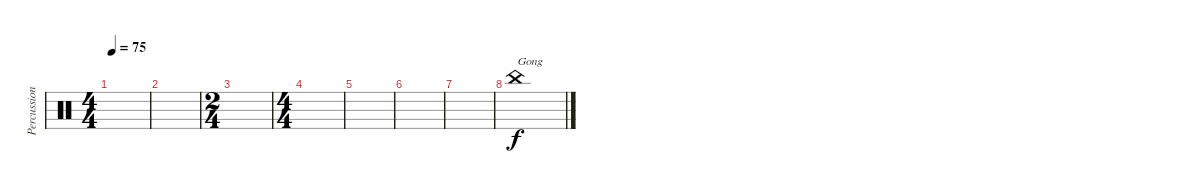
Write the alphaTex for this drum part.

\track ("Percussion" "Percussion") {instrument percussion}
\staff {score}
\articulation defaults
\ts (4 4)
\tempo 75
\clef neutral
\ks c
|
|
\ts (2 4)
|
\ts (4 4)
|
|
|
|
"China (hit)".1{txt "Gong"}
